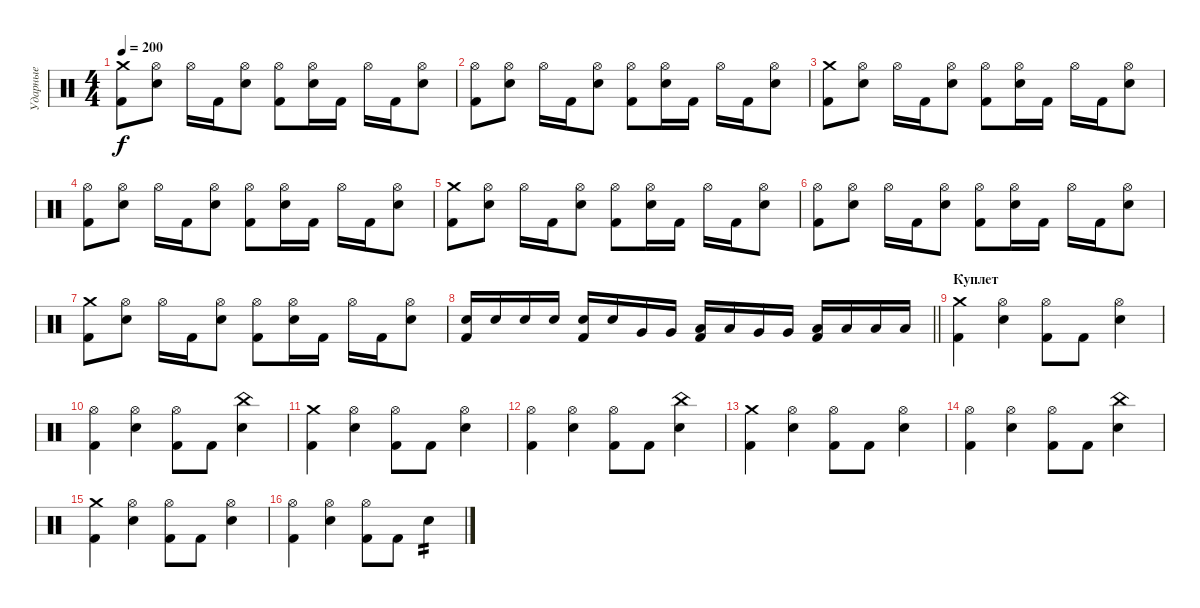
\track ("Ударные" "Ударные") {instrument percussion}
\staff {score}
\articulation defaults
\ts (4 4)
\tempo 200
\clef neutral
\ks c
("Kick (hit) 2" "Crash medium (hit)").8{dy f} ("Electric Snare (hit)" "Hi-Hat (open)").8 "Hi-Hat (open)".16 "Kick (hit) 2".16 ("Electric Snare (hit)" "Hi-Hat (open)").8 ("Kick (hit) 2" "Hi-Hat (open)").8 ("Electric Snare (hit)" "Hi-Hat (open)").16 "Kick (hit) 2".16 "Hi-Hat (open)".16 "Kick (hit) 2".16 ("Electric Snare (hit)" "Hi-Hat (open)").8 |
("Kick (hit) 2" "Hi-Hat (open)").8 ("Electric Snare (hit)" "Hi-Hat (open)").8 "Hi-Hat (open)".16 "Kick (hit) 2".16 ("Electric Snare (hit)" "Hi-Hat (open)").8 ("Kick (hit) 2" "Hi-Hat (open)").8 ("Electric Snare (hit)" "Hi-Hat (open)").16 "Kick (hit) 2".16 "Hi-Hat (open)".16 "Kick (hit) 2".16 ("Electric Snare (hit)" "Hi-Hat (open)").8 |
("Kick (hit) 2" "Crash medium (hit)").8 ("Electric Snare (hit)" "Hi-Hat (open)").8 "Hi-Hat (open)".16 "Kick (hit) 2".16 ("Electric Snare (hit)" "Hi-Hat (open)").8 ("Kick (hit) 2" "Hi-Hat (open)").8 ("Electric Snare (hit)" "Hi-Hat (open)").16 "Kick (hit) 2".16 "Hi-Hat (open)".16 "Kick (hit) 2".16 ("Electric Snare (hit)" "Hi-Hat (open)").8 |
("Kick (hit) 2" "Hi-Hat (open)").8 ("Electric Snare (hit)" "Hi-Hat (open)").8 "Hi-Hat (open)".16 "Kick (hit) 2".16 ("Electric Snare (hit)" "Hi-Hat (open)").8 ("Kick (hit) 2" "Hi-Hat (open)").8 ("Electric Snare (hit)" "Hi-Hat (open)").16 "Kick (hit) 2".16 "Hi-Hat (open)".16 "Kick (hit) 2".16 ("Electric Snare (hit)" "Hi-Hat (open)").8 |
("Kick (hit) 2" "Crash medium (hit)").8 ("Electric Snare (hit)" "Hi-Hat (open)").8 "Hi-Hat (open)".16 "Kick (hit) 2".16 ("Electric Snare (hit)" "Hi-Hat (open)").8 ("Kick (hit) 2" "Hi-Hat (open)").8 ("Electric Snare (hit)" "Hi-Hat (open)").16 "Kick (hit) 2".16 "Hi-Hat (open)".16 "Kick (hit) 2".16 ("Electric Snare (hit)" "Hi-Hat (open)").8 |
("Kick (hit) 2" "Hi-Hat (open)").8 ("Electric Snare (hit)" "Hi-Hat (open)").8 "Hi-Hat (open)".16 "Kick (hit) 2".16 ("Electric Snare (hit)" "Hi-Hat (open)").8 ("Kick (hit) 2" "Hi-Hat (open)").8 ("Electric Snare (hit)" "Hi-Hat (open)").16 "Kick (hit) 2".16 "Hi-Hat (open)".16 "Kick (hit) 2".16 ("Electric Snare (hit)" "Hi-Hat (open)").8 |
("Kick (hit) 2" "Crash medium (hit)").8 ("Electric Snare (hit)" "Hi-Hat (open)").8 "Hi-Hat (open)".16 "Kick (hit) 2".16 ("Electric Snare (hit)" "Hi-Hat (open)").8 ("Kick (hit) 2" "Hi-Hat (open)").8 ("Electric Snare (hit)" "Hi-Hat (open)").16 "Kick (hit) 2".16 "Hi-Hat (open)".16 "Kick (hit) 2".16 ("Electric Snare (hit)" "Hi-Hat (open)").8 |
\barLineRight lightlight
("Electric Snare (hit)" "Kick (hit) 2").16 "Electric Snare (hit)".16 "Electric Snare (hit)".16 "Electric Snare (hit)".16 ("Electric Snare (hit)" "Kick (hit) 2").16 "Electric Snare (hit)".16 "Very Low Tom (hit)".16 "Very Low Tom (hit)".16 ("Low Tom (hit)" "Kick (hit) 2").16 "Low Tom (hit)".16 "Very Low Tom (hit)".16 "Very Low Tom (hit)".16 ("Low Floor Tom (hit)" "Kick (hit) 2").16 "Low Floor Tom (hit)".16 "Low Floor Tom (hit)".16 "Low Floor Tom (hit)".16 |
\section ("" "Куплет")
("Crash medium (hit)" "Kick (hit) 2").4 ("Hi-Hat (open)" "Electric Snare (hit)").4 ("Hi-Hat (open)" "Kick (hit) 2").8 "Kick (hit) 2".8 ("Hi-Hat (open)" "Electric Snare (hit)").4 |
("Hi-Hat (open)" "Kick (hit) 2").4 ("Hi-Hat (open)" "Electric Snare (hit)").4 ("Hi-Hat (open)" "Kick (hit) 2").8 "Kick (hit) 2".8 ("China (hit)" "Electric Snare (hit)").4 |
("Crash medium (hit)" "Kick (hit) 2").4 ("Hi-Hat (open)" "Electric Snare (hit)").4 ("Hi-Hat (open)" "Kick (hit) 2").8 "Kick (hit) 2".8 ("Hi-Hat (open)" "Electric Snare (hit)").4 |
("Hi-Hat (open)" "Kick (hit) 2").4 ("Hi-Hat (open)" "Electric Snare (hit)").4 ("Hi-Hat (open)" "Kick (hit) 2").8 "Kick (hit) 2".8 ("China (hit)" "Electric Snare (hit)").4 |
("Crash medium (hit)" "Kick (hit) 2").4 ("Hi-Hat (open)" "Electric Snare (hit)").4 ("Hi-Hat (open)" "Kick (hit) 2").8 "Kick (hit) 2".8 ("Hi-Hat (open)" "Electric Snare (hit)").4 |
("Hi-Hat (open)" "Kick (hit) 2").4 ("Hi-Hat (open)" "Electric Snare (hit)").4 ("Hi-Hat (open)" "Kick (hit) 2").8 "Kick (hit) 2".8 ("China (hit)" "Electric Snare (hit)").4 |
("Crash medium (hit)" "Kick (hit) 2").4 ("Hi-Hat (open)" "Electric Snare (hit)").4 ("Hi-Hat (open)" "Kick (hit) 2").8 "Kick (hit) 2".8 ("Hi-Hat (open)" "Electric Snare (hit)").4 |
("Hi-Hat (open)" "Kick (hit) 2").4 ("Hi-Hat (open)" "Electric Snare (hit)").4 ("Hi-Hat (open)" "Kick (hit) 2").8 "Kick (hit) 2".8 "Electric Snare (hit)".4{tp 2}
